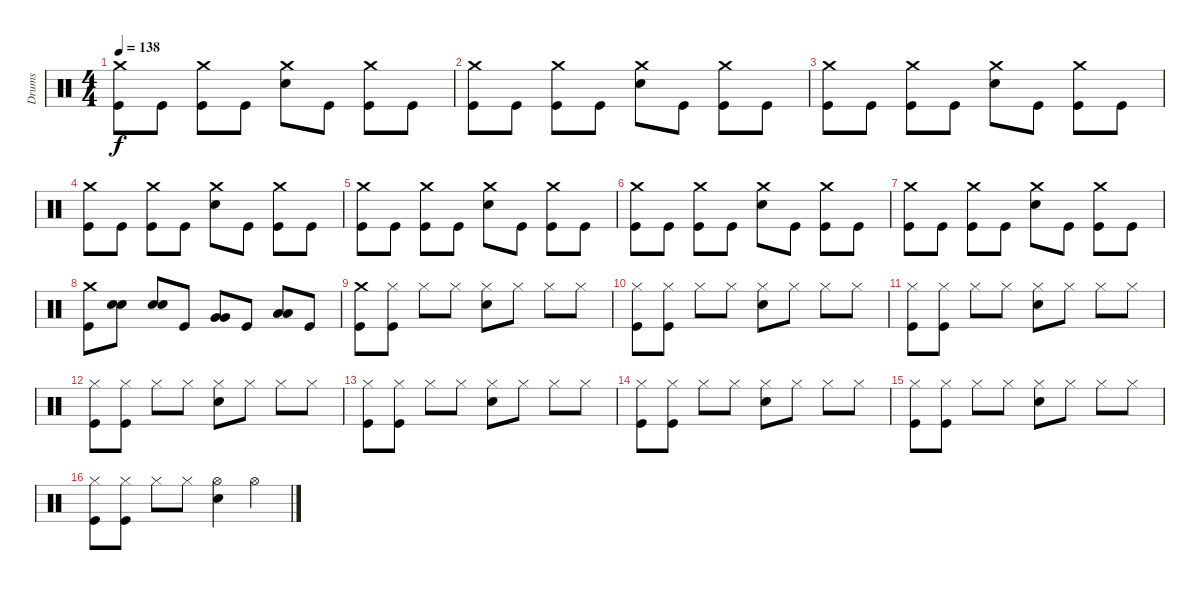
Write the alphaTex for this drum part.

\track ("Drums" "Drums") {instrument percussion}
\staff {score}
\articulation defaults
\ts (4 4)
\tempo 138
\clef neutral
\ks c
("Crash medium (hit)" "Kick (hit)").8{dy f} "Kick (hit)".8 ("Crash medium (hit)" "Kick (hit)").8 "Kick (hit)".8 ("Crash medium (hit)" "Snare (hit) 2").8 "Kick (hit)".8 ("Crash medium (hit)" "Kick (hit)").8 "Kick (hit)".8 |
("Crash medium (hit)" "Kick (hit)").8 "Kick (hit)".8 ("Crash medium (hit)" "Kick (hit)").8 "Kick (hit)".8 ("Crash medium (hit)" "Snare (hit) 2").8 "Kick (hit)".8 ("Crash medium (hit)" "Kick (hit)").8 "Kick (hit)".8 |
("Crash medium (hit)" "Kick (hit)").8 "Kick (hit)".8 ("Crash medium (hit)" "Kick (hit)").8 "Kick (hit)".8 ("Crash medium (hit)" "Snare (hit) 2").8 "Kick (hit)".8 ("Crash medium (hit)" "Kick (hit)").8 "Kick (hit)".8 |
("Crash medium (hit)" "Kick (hit)").8 "Kick (hit)".8 ("Crash medium (hit)" "Kick (hit)").8 "Kick (hit)".8 ("Crash medium (hit)" "Snare (hit) 2").8 "Kick (hit)".8 ("Crash medium (hit)" "Kick (hit)").8 "Kick (hit)".8 |
("Crash medium (hit)" "Kick (hit)").8 "Kick (hit)".8 ("Crash medium (hit)" "Kick (hit)").8 "Kick (hit)".8 ("Crash medium (hit)" "Snare (hit) 2").8 "Kick (hit)".8 ("Crash medium (hit)" "Kick (hit)").8 "Kick (hit)".8 |
("Crash medium (hit)" "Kick (hit)").8 "Kick (hit)".8 ("Crash medium (hit)" "Kick (hit)").8 "Kick (hit)".8 ("Crash medium (hit)" "Snare (hit) 2").8 "Kick (hit)".8 ("Crash medium (hit)" "Kick (hit)").8 "Kick (hit)".8 |
("Crash medium (hit)" "Kick (hit)").8 "Kick (hit)".8 ("Crash medium (hit)" "Kick (hit)").8 "Kick (hit)".8 ("Crash medium (hit)" "Snare (hit) 2").8 "Kick (hit)".8 ("Crash medium (hit)" "Kick (hit)").8 "Kick (hit)".8 |
("Crash medium (hit)" "Kick (hit)").8 ("Snare (hit) 2" "Snare (hit) 2").8 ("Snare (hit) 2" "Snare (hit) 2").8 "Kick (hit)".8 ("Very Low Tom (hit)" "Very Low Tom (hit)").8 "Kick (hit)".8 ("Low Floor Tom (hit)" "Low Floor Tom (hit)").8 "Kick (hit)".8 |
("Crash medium (hit)" "Kick (hit)").8 ("Hi-Hat (closed)" "Kick (hit)").8 "Hi-Hat (closed)".8 "Hi-Hat (closed)".8 ("Hi-Hat (closed)" "Snare (hit) 2").8 "Hi-Hat (closed)".8 "Hi-Hat (closed)".8 "Hi-Hat (closed)".8 |
("Hi-Hat (closed)" "Kick (hit)").8 ("Hi-Hat (closed)" "Kick (hit)").8 "Hi-Hat (closed)".8 "Hi-Hat (closed)".8 ("Hi-Hat (closed)" "Snare (hit) 2").8 "Hi-Hat (closed)".8 "Hi-Hat (closed)".8 "Hi-Hat (closed)".8 |
("Hi-Hat (closed)" "Kick (hit)").8 ("Hi-Hat (closed)" "Kick (hit)").8 "Hi-Hat (closed)".8 "Hi-Hat (closed)".8 ("Hi-Hat (closed)" "Snare (hit) 2").8 "Hi-Hat (closed)".8 "Hi-Hat (closed)".8 "Hi-Hat (closed)".8 |
("Hi-Hat (closed)" "Kick (hit)").8 ("Hi-Hat (closed)" "Kick (hit)").8 "Hi-Hat (closed)".8 "Hi-Hat (closed)".8 ("Hi-Hat (closed)" "Snare (hit) 2").8 "Hi-Hat (closed)".8 "Hi-Hat (closed)".8 "Hi-Hat (closed)".8 |
("Hi-Hat (closed)" "Kick (hit)").8 ("Hi-Hat (closed)" "Kick (hit)").8 "Hi-Hat (closed)".8 "Hi-Hat (closed)".8 ("Hi-Hat (closed)" "Snare (hit) 2").8 "Hi-Hat (closed)".8 "Hi-Hat (closed)".8 "Hi-Hat (closed)".8 |
("Hi-Hat (closed)" "Kick (hit)").8 ("Hi-Hat (closed)" "Kick (hit)").8 "Hi-Hat (closed)".8 "Hi-Hat (closed)".8 ("Hi-Hat (closed)" "Snare (hit) 2").8 "Hi-Hat (closed)".8 "Hi-Hat (closed)".8 "Hi-Hat (closed)".8 |
("Hi-Hat (closed)" "Kick (hit)").8 ("Hi-Hat (closed)" "Kick (hit)").8 "Hi-Hat (closed)".8 "Hi-Hat (closed)".8 ("Hi-Hat (closed)" "Snare (hit) 2").8 "Hi-Hat (closed)".8 "Hi-Hat (closed)".8 "Hi-Hat (closed)".8 |
("Hi-Hat (closed)" "Kick (hit)").8 ("Hi-Hat (closed)" "Kick (hit)").8 "Hi-Hat (closed)".8 "Hi-Hat (closed)".8 ("Hi-Hat (open)" "Snare (hit) 2").4 "Hi-Hat (open)".4
